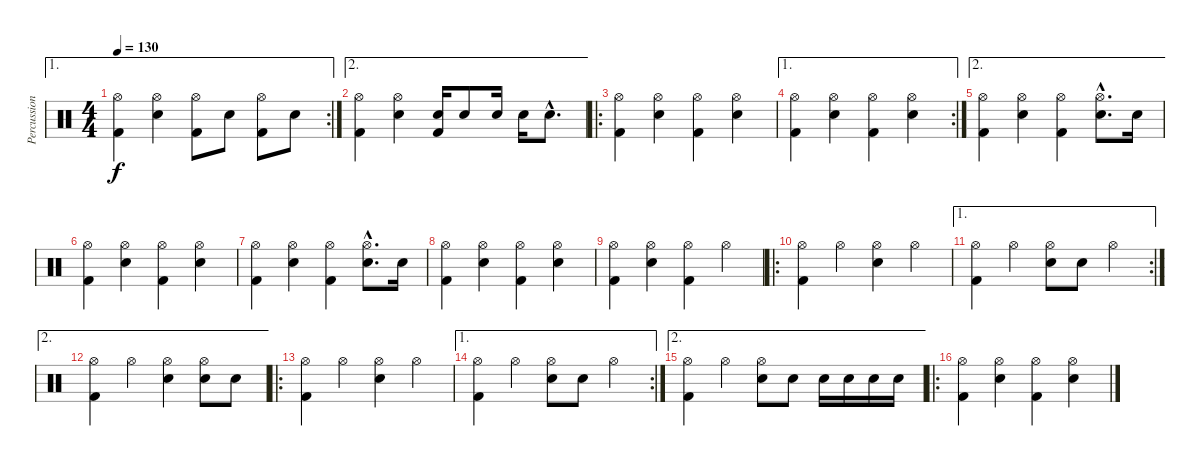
\track ("Percussion" "Percussion") {instrument percussion}
\staff {score}
\articulation defaults
\ae 1
\rc 2
\ts (4 4)
\tempo 130
\clef neutral
\ks c
("Hi-Hat (open)" "Kick (hit) 2").4{dy f} ("Hi-Hat (open)" "Electric Snare (hit)").4 ("Hi-Hat (open)" "Kick (hit) 2").8 "Electric Snare (hit)".8 ("Hi-Hat (open)" "Kick (hit) 2").8 "Electric Snare (hit)".8 |
\ae 2
("Hi-Hat (open)" "Kick (hit) 2").4 ("Hi-Hat (open)" "Electric Snare (hit)").4 ("Electric Snare (hit)" "Kick (hit) 2").16 "Electric Snare (hit)".8 "Electric Snare (hit)".16 "Electric Snare (hit)".16 "Electric Snare (hit)"{hac}.8{d} |
\ro
("Hi-Hat (open)" "Kick (hit) 2").4 ("Hi-Hat (open)" "Electric Snare (hit)").4 ("Hi-Hat (open)" "Kick (hit) 2").4 ("Hi-Hat (open)" "Electric Snare (hit)").4 |
\ae 1
\rc 2
("Hi-Hat (open)" "Kick (hit) 2").4 ("Hi-Hat (open)" "Electric Snare (hit)").4 ("Hi-Hat (open)" "Kick (hit) 2").4 ("Hi-Hat (open)" "Electric Snare (hit)").4 |
\ae 2
("Hi-Hat (open)" "Kick (hit) 2").4 ("Hi-Hat (open)" "Electric Snare (hit)").4 ("Hi-Hat (open)" "Kick (hit) 2").4 ("Hi-Hat (open)"{hac} "Electric Snare (hit)"{hac}).8{d} "Electric Snare (hit)".16 |
("Hi-Hat (open)" "Kick (hit) 2").4 ("Hi-Hat (open)" "Electric Snare (hit)").4 ("Hi-Hat (open)" "Kick (hit) 2").4 ("Hi-Hat (open)" "Electric Snare (hit)").4 |
("Hi-Hat (open)" "Kick (hit) 2").4 ("Hi-Hat (open)" "Electric Snare (hit)").4 ("Hi-Hat (open)" "Kick (hit) 2").4 ("Hi-Hat (open)"{hac} "Electric Snare (hit)"{hac}).8{d} "Electric Snare (hit)".16 |
("Hi-Hat (open)" "Kick (hit) 2").4 ("Hi-Hat (open)" "Electric Snare (hit)").4 ("Hi-Hat (open)" "Kick (hit) 2").4 ("Hi-Hat (open)" "Electric Snare (hit)").4 |
("Hi-Hat (open)" "Kick (hit) 2").4 ("Hi-Hat (open)" "Electric Snare (hit)").4 ("Hi-Hat (open)" "Kick (hit) 2").4 "Hi-Hat (open)".4 |
\ro
("Hi-Hat (open)" "Kick (hit) 2").4 "Hi-Hat (open)".4 ("Hi-Hat (open)" "Electric Snare (hit)").4 "Hi-Hat (open)".4 |
\ae 1
\rc 2
("Hi-Hat (open)" "Kick (hit) 2").4 "Hi-Hat (open)".4 ("Hi-Hat (open)" "Electric Snare (hit)").8 "Electric Snare (hit)".8 "Hi-Hat (open)".4 |
\ae 2
("Hi-Hat (open)" "Kick (hit) 2").4 "Hi-Hat (open)".4 ("Hi-Hat (open)" "Electric Snare (hit)").4 ("Hi-Hat (open)" "Electric Snare (hit)").8 "Electric Snare (hit)".8 |
\ro
("Hi-Hat (open)" "Kick (hit) 2").4 "Hi-Hat (open)".4 ("Hi-Hat (open)" "Electric Snare (hit)").4 "Hi-Hat (open)".4 |
\ae 1
\rc 2
("Hi-Hat (open)" "Kick (hit) 2").4 "Hi-Hat (open)".4 ("Hi-Hat (open)" "Electric Snare (hit)").8 "Electric Snare (hit)".8 "Hi-Hat (open)".4 |
\ae 2
("Hi-Hat (open)" "Kick (hit) 2").4 "Hi-Hat (open)".4 ("Hi-Hat (open)" "Electric Snare (hit)").8 "Electric Snare (hit)".8 "Electric Snare (hit)".16 "Electric Snare (hit)".16 "Electric Snare (hit)".16 "Electric Snare (hit)".16 |
\ro
("Hi-Hat (open)" "Kick (hit) 2").4 ("Hi-Hat (open)" "Electric Snare (hit)").4 ("Hi-Hat (open)" "Kick (hit) 2").4 ("Hi-Hat (open)" "Electric Snare (hit)").4
